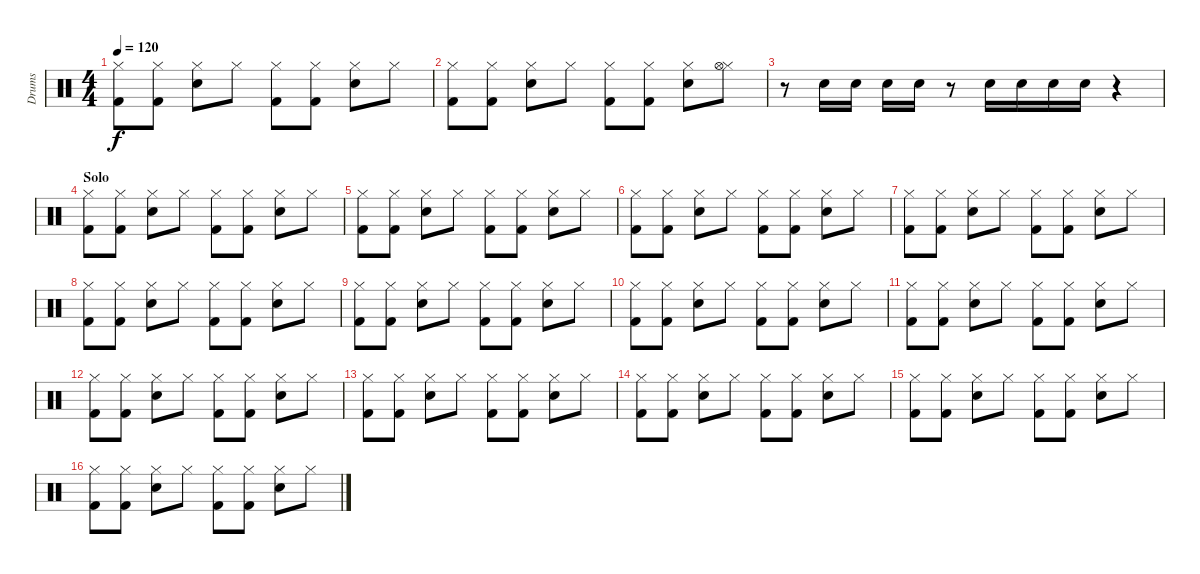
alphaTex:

\track ("Drums" "Drums") {instrument percussion}
\staff {score}
\articulation defaults
\ts (4 4)
\tempo 120
\clef neutral
\ks c
("Hi-Hat (closed)" "Kick (hit) 2").8{dy f} ("Hi-Hat (closed)" "Kick (hit) 2").8 ("Hi-Hat (closed)" "Snare (hit) 2").8 "Hi-Hat (closed)".8 ("Hi-Hat (closed)" "Kick (hit) 2").8 ("Hi-Hat (closed)" "Kick (hit) 2").8 ("Hi-Hat (closed)" "Snare (hit) 2").8 "Hi-Hat (closed)".8 |
("Hi-Hat (closed)" "Kick (hit) 2").8 ("Hi-Hat (closed)" "Kick (hit) 2").8 ("Hi-Hat (closed)" "Snare (hit) 2").8 "Hi-Hat (closed)".8 ("Hi-Hat (closed)" "Kick (hit) 2").8 ("Hi-Hat (closed)" "Kick (hit) 2").8 ("Hi-Hat (closed)" "Snare (hit) 2").8 ("Hi-Hat (closed)" "Hi-Hat (open)").8 |
r.8 "Snare (hit) 2".16 "Snare (hit) 2".16 "Snare (hit) 2".16 "Snare (hit) 2".16 r.8 "Snare (hit) 2".16 "Snare (hit) 2".16 "Snare (hit) 2".16 "Snare (hit) 2".16 r.4 |
\section ("" "Solo")
("Hi-Hat (closed)" "Kick (hit) 2").8 ("Hi-Hat (closed)" "Kick (hit) 2").8 ("Hi-Hat (closed)" "Snare (hit) 2").8 "Hi-Hat (closed)".8 ("Hi-Hat (closed)" "Kick (hit) 2").8 ("Hi-Hat (closed)" "Kick (hit) 2").8 ("Hi-Hat (closed)" "Snare (hit) 2").8 "Hi-Hat (closed)".8 |
("Hi-Hat (closed)" "Kick (hit) 2").8 ("Hi-Hat (closed)" "Kick (hit) 2").8 ("Hi-Hat (closed)" "Snare (hit) 2").8 "Hi-Hat (closed)".8 ("Hi-Hat (closed)" "Kick (hit) 2").8 ("Hi-Hat (closed)" "Kick (hit) 2").8 ("Hi-Hat (closed)" "Snare (hit) 2").8 "Hi-Hat (closed)".8 |
("Hi-Hat (closed)" "Kick (hit) 2").8 ("Hi-Hat (closed)" "Kick (hit) 2").8 ("Hi-Hat (closed)" "Snare (hit) 2").8 "Hi-Hat (closed)".8 ("Hi-Hat (closed)" "Kick (hit) 2").8 ("Hi-Hat (closed)" "Kick (hit) 2").8 ("Hi-Hat (closed)" "Snare (hit) 2").8 "Hi-Hat (closed)".8 |
("Hi-Hat (closed)" "Kick (hit) 2").8 ("Hi-Hat (closed)" "Kick (hit) 2").8 ("Hi-Hat (closed)" "Snare (hit) 2").8 "Hi-Hat (closed)".8 ("Hi-Hat (closed)" "Kick (hit) 2").8 ("Hi-Hat (closed)" "Kick (hit) 2").8 ("Hi-Hat (closed)" "Snare (hit) 2").8 "Hi-Hat (closed)".8 |
("Hi-Hat (closed)" "Kick (hit) 2").8 ("Hi-Hat (closed)" "Kick (hit) 2").8 ("Hi-Hat (closed)" "Snare (hit) 2").8 "Hi-Hat (closed)".8 ("Hi-Hat (closed)" "Kick (hit) 2").8 ("Hi-Hat (closed)" "Kick (hit) 2").8 ("Hi-Hat (closed)" "Snare (hit) 2").8 "Hi-Hat (closed)".8 |
("Hi-Hat (closed)" "Kick (hit) 2").8 ("Hi-Hat (closed)" "Kick (hit) 2").8 ("Hi-Hat (closed)" "Snare (hit) 2").8 "Hi-Hat (closed)".8 ("Hi-Hat (closed)" "Kick (hit) 2").8 ("Hi-Hat (closed)" "Kick (hit) 2").8 ("Hi-Hat (closed)" "Snare (hit) 2").8 "Hi-Hat (closed)".8 |
("Hi-Hat (closed)" "Kick (hit) 2").8 ("Hi-Hat (closed)" "Kick (hit) 2").8 ("Hi-Hat (closed)" "Snare (hit) 2").8 "Hi-Hat (closed)".8 ("Hi-Hat (closed)" "Kick (hit) 2").8 ("Hi-Hat (closed)" "Kick (hit) 2").8 ("Hi-Hat (closed)" "Snare (hit) 2").8 "Hi-Hat (closed)".8 |
("Hi-Hat (closed)" "Kick (hit) 2").8 ("Hi-Hat (closed)" "Kick (hit) 2").8 ("Hi-Hat (closed)" "Snare (hit) 2").8 "Hi-Hat (closed)".8 ("Hi-Hat (closed)" "Kick (hit) 2").8 ("Hi-Hat (closed)" "Kick (hit) 2").8 ("Hi-Hat (closed)" "Snare (hit) 2").8 "Hi-Hat (closed)".8 |
("Hi-Hat (closed)" "Kick (hit) 2").8 ("Hi-Hat (closed)" "Kick (hit) 2").8 ("Hi-Hat (closed)" "Snare (hit) 2").8 "Hi-Hat (closed)".8 ("Hi-Hat (closed)" "Kick (hit) 2").8 ("Hi-Hat (closed)" "Kick (hit) 2").8 ("Hi-Hat (closed)" "Snare (hit) 2").8 "Hi-Hat (closed)".8 |
("Hi-Hat (closed)" "Kick (hit) 2").8 ("Hi-Hat (closed)" "Kick (hit) 2").8 ("Hi-Hat (closed)" "Snare (hit) 2").8 "Hi-Hat (closed)".8 ("Hi-Hat (closed)" "Kick (hit) 2").8 ("Hi-Hat (closed)" "Kick (hit) 2").8 ("Hi-Hat (closed)" "Snare (hit) 2").8 "Hi-Hat (closed)".8 |
("Hi-Hat (closed)" "Kick (hit) 2").8 ("Hi-Hat (closed)" "Kick (hit) 2").8 ("Hi-Hat (closed)" "Snare (hit) 2").8 "Hi-Hat (closed)".8 ("Hi-Hat (closed)" "Kick (hit) 2").8 ("Hi-Hat (closed)" "Kick (hit) 2").8 ("Hi-Hat (closed)" "Snare (hit) 2").8 "Hi-Hat (closed)".8 |
("Hi-Hat (closed)" "Kick (hit) 2").8 ("Hi-Hat (closed)" "Kick (hit) 2").8 ("Hi-Hat (closed)" "Snare (hit) 2").8 "Hi-Hat (closed)".8 ("Hi-Hat (closed)" "Kick (hit) 2").8 ("Hi-Hat (closed)" "Kick (hit) 2").8 ("Hi-Hat (closed)" "Snare (hit) 2").8 "Hi-Hat (closed)".8 |
("Hi-Hat (closed)" "Kick (hit) 2").8 ("Hi-Hat (closed)" "Kick (hit) 2").8 ("Hi-Hat (closed)" "Snare (hit) 2").8 "Hi-Hat (closed)".8 ("Hi-Hat (closed)" "Kick (hit) 2").8 ("Hi-Hat (closed)" "Kick (hit) 2").8 ("Hi-Hat (closed)" "Snare (hit) 2").8 "Hi-Hat (closed)".8
